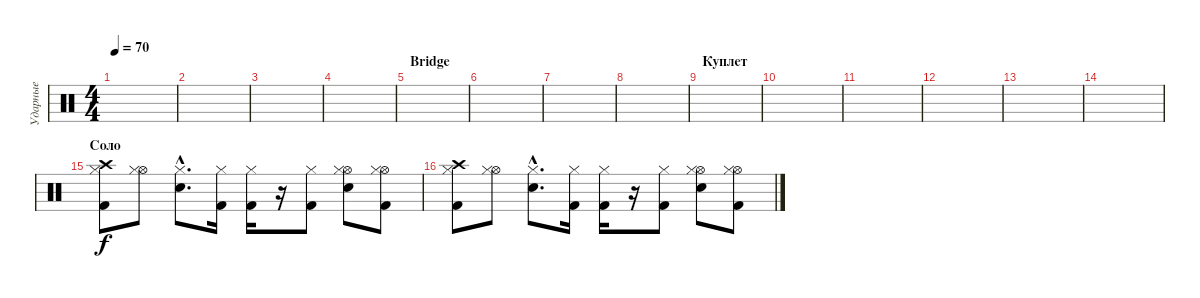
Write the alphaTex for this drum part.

\track ("Ударные" "Ударные") {instrument percussion}
\staff {score}
\articulation defaults
\ts (4 4)
\tempo 70
\clef neutral
\ks c
|
|
|
|
\section ("" "Bridge")
|
|
|
|
\section ("" "Куплет")
|
|
|
|
|
|
\section ("" "Соло")
("Kick (hit) 2" "Crash high (hit)" "Hi-Hat (closed)").8 ("Hi-Hat (open)" "Hi-Hat (closed)").8 ("Electric Snare (hit)"{hac} "Hi-Hat (closed)"{hac}).8{d} ("Kick (hit) 2" "Hi-Hat (closed)").16 ("Kick (hit) 2" "Hi-Hat (closed)").16 r.16 ("Kick (hit) 2" "Hi-Hat (closed)").8 ("Hi-Hat (open)" "Electric Snare (hit)" "Hi-Hat (closed)").8 ("Hi-Hat (open)" "Kick (hit) 2" "Hi-Hat (closed)").8 |
("Kick (hit) 2" "Crash high (hit)" "Hi-Hat (closed)").8 ("Hi-Hat (open)" "Hi-Hat (closed)").8 ("Electric Snare (hit)"{hac} "Hi-Hat (closed)"{hac}).8{d} ("Kick (hit) 2" "Hi-Hat (closed)").16 ("Kick (hit) 2" "Hi-Hat (closed)").16 r.16 ("Kick (hit) 2" "Hi-Hat (closed)").8 ("Hi-Hat (open)" "Electric Snare (hit)" "Hi-Hat (closed)").8 ("Hi-Hat (open)" "Kick (hit) 2" "Hi-Hat (closed)").8
